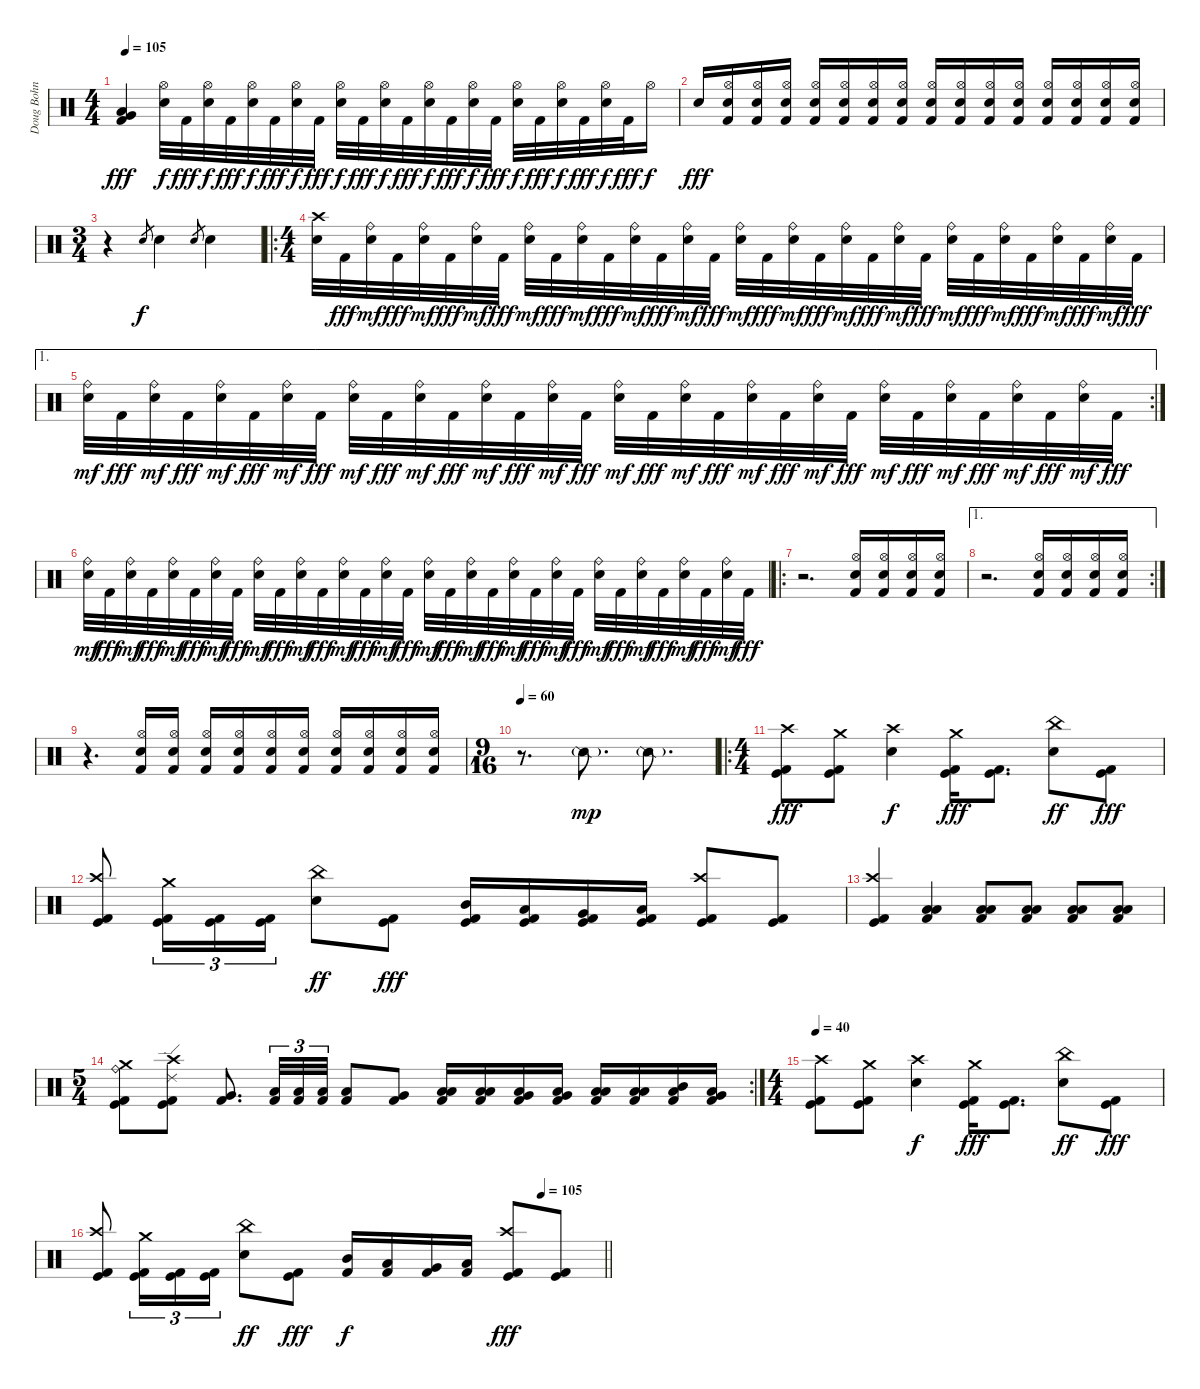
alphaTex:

\track ("Doug Bohn" "Doug Bohn") {instrument percussion}
\staff {score}
\articulation defaults
\ts (4 4)
\tempo 105
\clef neutral
\ks c
("Low Tom (hit)" "Very Low Tom (hit)" "Kick (hit) 2").4{dy fff} ("Hi-Hat (open)" "Snare (hit) 2").32{dy f} "Kick (hit) 2".32{dy fff} ("Hi-Hat (open)" "Snare (hit) 2").32{dy f} "Kick (hit) 2".32{dy fff} ("Hi-Hat (open)" "Snare (hit) 2").32{dy f} "Kick (hit) 2".32{dy fff} ("Hi-Hat (open)" "Snare (hit) 2").32{dy f} "Kick (hit) 2".32{dy fff} ("Hi-Hat (open)" "Snare (hit) 2").32{dy f} "Kick (hit) 2".32{dy fff} ("Hi-Hat (open)" "Snare (hit) 2").32{dy f} "Kick (hit) 2".32{dy fff} ("Hi-Hat (open)" "Snare (hit) 2").32{dy f} "Kick (hit) 2".32{dy fff} ("Hi-Hat (open)" "Snare (hit) 2").32{dy f} "Kick (hit) 2".32{dy fff} ("Hi-Hat (open)" "Snare (hit) 2").32{dy f} "Kick (hit) 2".32{dy fff} ("Hi-Hat (open)" "Snare (hit) 2").32{dy f} "Kick (hit) 2".32{dy fff} ("Hi-Hat (open)" "Snare (hit) 2").32{dy f} "Kick (hit) 2".32{dy fff} "Hi-Hat (open)".16{dy f} |
"Snare (hit) 2".16{dy fff} ("Hi-Hat (open)" "Snare (hit) 2" "Kick (hit) 2").16 ("Hi-Hat (open)" "Snare (hit) 2" "Kick (hit) 2").16 ("Hi-Hat (open)" "Snare (hit) 2" "Kick (hit) 2").16 ("Hi-Hat (open)" "Snare (hit) 2" "Kick (hit) 2").16 ("Hi-Hat (open)" "Snare (hit) 2" "Kick (hit) 2").16 ("Hi-Hat (open)" "Snare (hit) 2" "Kick (hit) 2").16 ("Hi-Hat (open)" "Snare (hit) 2" "Kick (hit) 2").16 ("Hi-Hat (open)" "Snare (hit) 2" "Kick (hit) 2").16 ("Hi-Hat (open)" "Snare (hit) 2" "Kick (hit) 2").16 ("Hi-Hat (open)" "Snare (hit) 2" "Kick (hit) 2").16 ("Hi-Hat (open)" "Snare (hit) 2" "Kick (hit) 2").16 ("Hi-Hat (open)" "Snare (hit) 2" "Kick (hit) 2").16 ("Hi-Hat (open)" "Snare (hit) 2" "Kick (hit) 2").16 ("Hi-Hat (open)" "Snare (hit) 2" "Kick (hit) 2").16 ("Hi-Hat (open)" "Snare (hit) 2" "Kick (hit) 2").16 |
\ts (3 4)
r.4 "Snare (hit) 2".8{gr dy f} "Snare (hit) 2".4 "Snare (hit) 2".8{gr} "Snare (hit) 2".4 |
\ro
\ts (4 4)
("Crash high (hit)" "Snare (hit) 2").32 "Kick (hit) 2".32{dy fff} ("Ride (bell)" "Snare (hit) 2").32{dy mf} "Kick (hit) 2".32{dy fff} ("Ride (bell)" "Snare (hit) 2").32{dy mf} "Kick (hit) 2".32{dy fff} ("Ride (bell)" "Snare (hit) 2").32{dy mf} "Kick (hit) 2".32{dy fff} ("Ride (bell)" "Snare (hit) 2").32{dy mf} "Kick (hit) 2".32{dy fff} ("Ride (bell)" "Snare (hit) 2").32{dy mf} "Kick (hit) 2".32{dy fff} ("Ride (bell)" "Snare (hit) 2").32{dy mf} "Kick (hit) 2".32{dy fff} ("Ride (bell)" "Snare (hit) 2").32{dy mf} "Kick (hit) 2".32{dy fff} ("Ride (bell)" "Snare (hit) 2").32{dy mf} "Kick (hit) 2".32{dy fff} ("Ride (bell)" "Snare (hit) 2").32{dy mf} "Kick (hit) 2".32{dy fff} ("Ride (bell)" "Snare (hit) 2").32{dy mf} "Kick (hit) 2".32{dy fff} ("Ride (bell)" "Snare (hit) 2").32{dy mf} "Kick (hit) 2".32{dy fff} ("Ride (bell)" "Snare (hit) 2").32{dy mf} "Kick (hit) 2".32{dy fff} ("Ride (bell)" "Snare (hit) 2").32{dy mf} "Kick (hit) 2".32{dy fff} ("Ride (bell)" "Snare (hit) 2").32{dy mf} "Kick (hit) 2".32{dy fff} ("Ride (bell)" "Snare (hit) 2").32{dy mf} "Kick (hit) 2".32{dy fff} |
\ae 1
\rc 2
("Ride (bell)" "Snare (hit) 2").32{dy mf} "Kick (hit) 2".32{dy fff} ("Ride (bell)" "Snare (hit) 2").32{dy mf} "Kick (hit) 2".32{dy fff} ("Ride (bell)" "Snare (hit) 2").32{dy mf} "Kick (hit) 2".32{dy fff} ("Ride (bell)" "Snare (hit) 2").32{dy mf} "Kick (hit) 2".32{dy fff} ("Ride (bell)" "Snare (hit) 2").32{dy mf} "Kick (hit) 2".32{dy fff} ("Ride (bell)" "Snare (hit) 2").32{dy mf} "Kick (hit) 2".32{dy fff} ("Ride (bell)" "Snare (hit) 2").32{dy mf} "Kick (hit) 2".32{dy fff} ("Ride (bell)" "Snare (hit) 2").32{dy mf} "Kick (hit) 2".32{dy fff} ("Ride (bell)" "Snare (hit) 2").32{dy mf} "Kick (hit) 2".32{dy fff} ("Ride (bell)" "Snare (hit) 2").32{dy mf} "Kick (hit) 2".32{dy fff} ("Ride (bell)" "Snare (hit) 2").32{dy mf} "Kick (hit) 2".32{dy fff} ("Ride (bell)" "Snare (hit) 2").32{dy mf} "Kick (hit) 2".32{dy fff} ("Ride (bell)" "Snare (hit) 2").32{dy mf} "Kick (hit) 2".32{dy fff} ("Ride (bell)" "Snare (hit) 2").32{dy mf} "Kick (hit) 2".32{dy fff} ("Ride (bell)" "Snare (hit) 2").32{dy mf} "Kick (hit) 2".32{dy fff} ("Ride (bell)" "Snare (hit) 2").32{dy mf} "Kick (hit) 2".32{dy fff} |
("Ride (bell)" "Snare (hit) 2").32{dy mf} "Kick (hit) 2".32{dy fff} ("Ride (bell)" "Snare (hit) 2").32{dy mf} "Kick (hit) 2".32{dy fff} ("Ride (bell)" "Snare (hit) 2").32{dy mf} "Kick (hit) 2".32{dy fff} ("Ride (bell)" "Snare (hit) 2").32{dy mf} "Kick (hit) 2".32{dy fff} ("Ride (bell)" "Snare (hit) 2").32{dy mf} "Kick (hit) 2".32{dy fff} ("Ride (bell)" "Snare (hit) 2").32{dy mf} "Kick (hit) 2".32{dy fff} ("Ride (bell)" "Snare (hit) 2").32{dy mf} "Kick (hit) 2".32{dy fff} ("Ride (bell)" "Snare (hit) 2").32{dy mf} "Kick (hit) 2".32{dy fff} ("Ride (bell)" "Snare (hit) 2").32{dy mf} "Kick (hit) 2".32{dy fff} ("Ride (bell)" "Snare (hit) 2").32{dy mf} "Kick (hit) 2".32{dy fff} ("Ride (bell)" "Snare (hit) 2").32{dy mf} "Kick (hit) 2".32{dy fff} ("Ride (bell)" "Snare (hit) 2").32{dy mf} "Kick (hit) 2".32{dy fff} ("Ride (bell)" "Snare (hit) 2").32{dy mf} "Kick (hit) 2".32{dy fff} ("Ride (bell)" "Snare (hit) 2").32{dy mf} "Kick (hit) 2".32{dy fff} ("Ride (bell)" "Snare (hit) 2").32{dy mf} "Kick (hit) 2".32{dy fff} ("Ride (bell)" "Snare (hit) 2").32{dy mf} "Kick (hit) 2".32{dy fff} |
\ro
r.2{d} ("Hi-Hat (open)" "Snare (hit) 2" "Kick (hit) 2").16 ("Hi-Hat (open)" "Snare (hit) 2" "Kick (hit) 2").16 ("Hi-Hat (open)" "Snare (hit) 2" "Kick (hit) 2").16 ("Hi-Hat (open)" "Snare (hit) 2" "Kick (hit) 2").16 |
\ae 1
\rc 2
r.2{d} ("Hi-Hat (open)" "Snare (hit) 2" "Kick (hit) 2").16 ("Hi-Hat (open)" "Snare (hit) 2" "Kick (hit) 2").16 ("Hi-Hat (open)" "Snare (hit) 2" "Kick (hit) 2").16 ("Hi-Hat (open)" "Snare (hit) 2" "Kick (hit) 2").16 |
r.4{d} ("Hi-Hat (open)" "Snare (hit) 2" "Kick (hit) 2").16 ("Hi-Hat (open)" "Snare (hit) 2" "Kick (hit) 2").16 ("Hi-Hat (open)" "Snare (hit) 2" "Kick (hit) 2").16 ("Hi-Hat (open)" "Snare (hit) 2" "Kick (hit) 2").16 ("Hi-Hat (open)" "Snare (hit) 2" "Kick (hit) 2").16 ("Hi-Hat (open)" "Snare (hit) 2" "Kick (hit) 2").16 ("Hi-Hat (open)" "Snare (hit) 2" "Kick (hit) 2").16 ("Hi-Hat (open)" "Snare (hit) 2" "Kick (hit) 2").16 ("Hi-Hat (open)" "Snare (hit) 2" "Kick (hit) 2").16 ("Hi-Hat (open)" "Snare (hit) 2" "Kick (hit) 2").16 |
\ts (9 16)
\tempo 60
r.8{d} "Snare (side stick) 2"{g}.8{d dy mp} "Snare (side stick) 2"{g}.8{d} |
\ro
\ts (4 4)
("Crash high (hit)" "Kick (hit)" "Kick (hit) 2").8{dy fff} ("Crash medium (hit)" "Kick (hit)" "Kick (hit) 2").8 ("Crash high (hit)" "Snare (hit) 2").4{dy f} ("Crash medium (hit)" "Kick (hit)" "Kick (hit) 2").16{dy fff} ("Kick (hit)" "Kick (hit) 2").8{d} ("China (hit)" "Snare (hit) 2").8{dy ff} ("Kick (hit)" "Kick (hit) 2").8{dy fff} |
("Crash high (hit)" "Kick (hit)" "Kick (hit) 2").8 ("Crash medium (hit)" "Kick (hit)" "Kick (hit) 2").16{tu (3 2)} ("Kick (hit)" "Kick (hit) 2").16{tu (3 2)} ("Kick (hit)" "Kick (hit) 2").16{tu (3 2)} ("China (hit)" "Snare (hit) 2").8{dy ff} ("Kick (hit)" "Kick (hit) 2").8{dy fff} ("Mid Tom (hit)" "Kick (hit)" "Kick (hit) 2").16 ("Low Tom (hit)" "Kick (hit)" "Kick (hit) 2").16 ("Very Low Tom (hit)" "Kick (hit)" "Kick (hit) 2").16 ("Low Floor Tom (hit)" "Kick (hit)" "Kick (hit) 2").16 ("Crash high (hit)" "Kick (hit)" "Kick (hit) 2").8 ("Kick (hit)" "Kick (hit) 2").8 |
("Crash high (hit)" "Kick (hit)" "Kick (hit) 2").4 ("Low Tom (hit)" "Low Floor Tom (hit)" "Kick (hit) 2").4 ("Low Tom (hit)" "Low Floor Tom (hit)" "Kick (hit) 2").8 ("Low Tom (hit)" "Low Floor Tom (hit)" "Kick (hit) 2").8 ("Low Tom (hit)" "Low Floor Tom (hit)" "Kick (hit) 2").8 ("Low Tom (hit)" "Low Floor Tom (hit)" "Kick (hit) 2").8 |
\rc 2
\ts (5 4)
("Crash medium (hit)" "Ride (bell)" "Kick (hit)" "Kick (hit) 2").8 ("Crash high (hit)" "Ride (edge) 2" "Kick (hit)" "Kick (hit) 2").8 ("Very Low Tom (hit)" "Kick (hit) 2").8{d} ("Low Floor Tom (hit)" "Kick (hit) 2").32{tu (3 2)} ("Low Floor Tom (hit)" "Kick (hit) 2").32{tu (3 2)} ("Low Floor Tom (hit)" "Kick (hit) 2").32{tu (3 2)} ("Low Tom (hit)" "Kick (hit) 2").8 ("Very Low Tom (hit)" "Kick (hit) 2").8 ("Low Tom (hit)" "Low Floor Tom (hit)" "Kick (hit) 2").16 ("Low Tom (hit)" "Low Floor Tom (hit)" "Kick (hit) 2").16 ("Very Low Tom (hit)" "Low Floor Tom (hit)" "Kick (hit) 2").16 ("Very Low Tom (hit)" "Low Floor Tom (hit)" "Kick (hit) 2").16 ("Low Tom (hit)" "Low Floor Tom (hit)" "Kick (hit) 2").16 ("Low Tom (hit)" "Low Floor Tom (hit)" "Kick (hit) 2").16 ("Mid Tom (hit)" "Low Floor Tom (hit)" "Kick (hit) 2").16 ("Very Low Tom (hit)" "Low Floor Tom (hit)" "Kick (hit) 2").16 |
\ts (4 4)
\tempo 40
("Crash high (hit)" "Kick (hit)" "Kick (hit) 2").8 ("Crash medium (hit)" "Kick (hit)" "Kick (hit) 2").8 ("Crash high (hit)" "Snare (hit) 2").4{dy f} ("Crash medium (hit)" "Kick (hit)" "Kick (hit) 2").16{dy fff} ("Kick (hit)" "Kick (hit) 2").8{d} ("China (hit)" "Snare (hit) 2").8{dy ff} ("Kick (hit)" "Kick (hit) 2").8{dy fff} |
\tempo (105 0.875)
\barLineRight lightlight
("Crash high (hit)" "Kick (hit)" "Kick (hit) 2").8 ("Crash medium (hit)" "Kick (hit)" "Kick (hit) 2").16{tu (3 2)} ("Kick (hit)" "Kick (hit) 2").16{tu (3 2)} ("Kick (hit)" "Kick (hit) 2").16{tu (3 2)} ("China (hit)" "Snare (hit) 2").8{dy ff} ("Kick (hit)" "Kick (hit) 2").8{dy fff} ("Mid Tom (hit)" "Kick (hit) 2").16{dy f} ("Low Tom (hit)" "Kick (hit) 2").16 ("Very Low Tom (hit)" "Kick (hit) 2").16 ("Low Floor Tom (hit)" "Kick (hit) 2").16 ("Crash high (hit)" "Kick (hit)" "Kick (hit) 2").8{dy fff} ("Kick (hit)" "Kick (hit) 2").8
